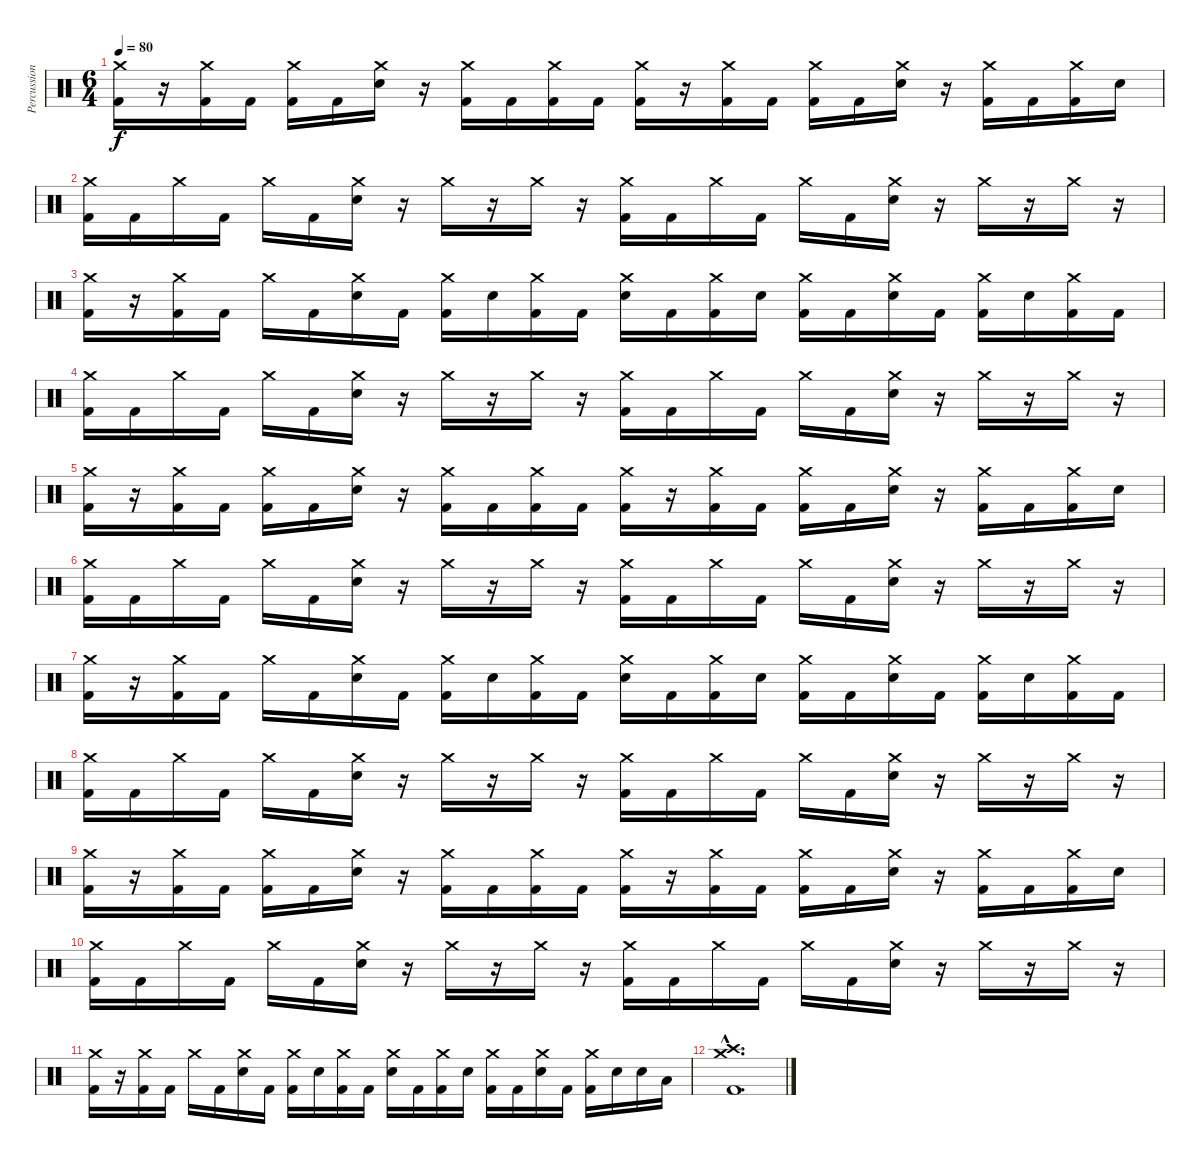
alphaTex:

\track ("Percussion" "Percussion") {instrument percussion}
\staff {score}
\articulation defaults
\ts (6 4)
\tempo 80
\clef neutral
\ks c
("Crash medium (hit)" "Kick (hit) 2").16{dy f} r.16 ("Crash medium (hit)" "Kick (hit) 2").16 "Kick (hit) 2".16 ("Crash medium (hit)" "Kick (hit) 2").16 "Kick (hit) 2".16 ("Crash medium (hit)" "Electric Snare (hit)").16 r.16 ("Crash medium (hit)" "Kick (hit) 2").16 "Kick (hit) 2".16 ("Crash medium (hit)" "Kick (hit) 2").16 "Kick (hit) 2".16 ("Crash medium (hit)" "Kick (hit) 2").16 r.16 ("Crash medium (hit)" "Kick (hit) 2").16 "Kick (hit) 2".16 ("Crash medium (hit)" "Kick (hit) 2").16 "Kick (hit) 2".16 ("Crash medium (hit)" "Electric Snare (hit)").16 r.16 ("Crash medium (hit)" "Kick (hit) 2").16 "Kick (hit) 2".16 ("Crash medium (hit)" "Kick (hit) 2").16 "Electric Snare (hit)".16 |
("Crash medium (hit)" "Kick (hit) 2").16 "Kick (hit) 2".16 "Crash medium (hit)".16 "Kick (hit) 2".16 "Crash medium (hit)".16 "Kick (hit) 2".16 ("Crash medium (hit)" "Electric Snare (hit)").16 r.16 "Crash medium (hit)".16 r.16 "Crash medium (hit)".16 r.16 ("Crash medium (hit)" "Kick (hit) 2").16 "Kick (hit) 2".16 "Crash medium (hit)".16 "Kick (hit) 2".16 "Crash medium (hit)".16 "Kick (hit) 2".16 ("Crash medium (hit)" "Electric Snare (hit)").16 r.16 "Crash medium (hit)".16 r.16 "Crash medium (hit)".16 r.16 |
("Crash medium (hit)" "Kick (hit) 2").16 r.16 ("Crash medium (hit)" "Kick (hit) 2").16 "Kick (hit) 2".16 "Crash medium (hit)".16 "Kick (hit) 2".16 ("Crash medium (hit)" "Electric Snare (hit)").16 "Kick (hit) 2".16 ("Crash medium (hit)" "Kick (hit) 2").16 "Electric Snare (hit)".16 ("Crash medium (hit)" "Kick (hit) 2").16 "Kick (hit) 2".16 ("Crash medium (hit)" "Electric Snare (hit)").16 "Kick (hit) 2".16 ("Crash medium (hit)" "Kick (hit) 2").16 "Electric Snare (hit)".16 ("Crash medium (hit)" "Kick (hit) 2").16 "Kick (hit) 2".16 ("Crash medium (hit)" "Electric Snare (hit)").16 "Kick (hit) 2".16 ("Crash medium (hit)" "Kick (hit) 2").16 "Electric Snare (hit)".16 ("Crash medium (hit)" "Kick (hit) 2").16 "Kick (hit) 2".16 |
("Crash medium (hit)" "Kick (hit) 2").16 "Kick (hit) 2".16 "Crash medium (hit)".16 "Kick (hit) 2".16 "Crash medium (hit)".16 "Kick (hit) 2".16 ("Crash medium (hit)" "Electric Snare (hit)").16 r.16 "Crash medium (hit)".16 r.16 "Crash medium (hit)".16 r.16 ("Crash medium (hit)" "Kick (hit) 2").16 "Kick (hit) 2".16 "Crash medium (hit)".16 "Kick (hit) 2".16 "Crash medium (hit)".16 "Kick (hit) 2".16 ("Crash medium (hit)" "Electric Snare (hit)").16 r.16 "Crash medium (hit)".16 r.16 "Crash medium (hit)".16 r.16 |
("Crash medium (hit)" "Kick (hit) 2").16 r.16 ("Crash medium (hit)" "Kick (hit) 2").16 "Kick (hit) 2".16 ("Crash medium (hit)" "Kick (hit) 2").16 "Kick (hit) 2".16 ("Crash medium (hit)" "Electric Snare (hit)").16 r.16 ("Crash medium (hit)" "Kick (hit) 2").16 "Kick (hit) 2".16 ("Crash medium (hit)" "Kick (hit) 2").16 "Kick (hit) 2".16 ("Crash medium (hit)" "Kick (hit) 2").16 r.16 ("Crash medium (hit)" "Kick (hit) 2").16 "Kick (hit) 2".16 ("Crash medium (hit)" "Kick (hit) 2").16 "Kick (hit) 2".16 ("Crash medium (hit)" "Electric Snare (hit)").16 r.16 ("Crash medium (hit)" "Kick (hit) 2").16 "Kick (hit) 2".16 ("Crash medium (hit)" "Kick (hit) 2").16 "Electric Snare (hit)".16 |
("Crash medium (hit)" "Kick (hit) 2").16 "Kick (hit) 2".16 "Crash medium (hit)".16 "Kick (hit) 2".16 "Crash medium (hit)".16 "Kick (hit) 2".16 ("Crash medium (hit)" "Electric Snare (hit)").16 r.16 "Crash medium (hit)".16 r.16 "Crash medium (hit)".16 r.16 ("Crash medium (hit)" "Kick (hit) 2").16 "Kick (hit) 2".16 "Crash medium (hit)".16 "Kick (hit) 2".16 "Crash medium (hit)".16 "Kick (hit) 2".16 ("Crash medium (hit)" "Electric Snare (hit)").16 r.16 "Crash medium (hit)".16 r.16 "Crash medium (hit)".16 r.16 |
("Crash medium (hit)" "Kick (hit) 2").16 r.16 ("Crash medium (hit)" "Kick (hit) 2").16 "Kick (hit) 2".16 "Crash medium (hit)".16 "Kick (hit) 2".16 ("Crash medium (hit)" "Electric Snare (hit)").16 "Kick (hit) 2".16 ("Crash medium (hit)" "Kick (hit) 2").16 "Electric Snare (hit)".16 ("Crash medium (hit)" "Kick (hit) 2").16 "Kick (hit) 2".16 ("Crash medium (hit)" "Electric Snare (hit)").16 "Kick (hit) 2".16 ("Crash medium (hit)" "Kick (hit) 2").16 "Electric Snare (hit)".16 ("Crash medium (hit)" "Kick (hit) 2").16 "Kick (hit) 2".16 ("Crash medium (hit)" "Electric Snare (hit)").16 "Kick (hit) 2".16 ("Crash medium (hit)" "Kick (hit) 2").16 "Electric Snare (hit)".16 ("Crash medium (hit)" "Kick (hit) 2").16 "Kick (hit) 2".16 |
("Crash medium (hit)" "Kick (hit) 2").16 "Kick (hit) 2".16 "Crash medium (hit)".16 "Kick (hit) 2".16 "Crash medium (hit)".16 "Kick (hit) 2".16 ("Crash medium (hit)" "Electric Snare (hit)").16 r.16 "Crash medium (hit)".16 r.16 "Crash medium (hit)".16 r.16 ("Crash medium (hit)" "Kick (hit) 2").16 "Kick (hit) 2".16 "Crash medium (hit)".16 "Kick (hit) 2".16 "Crash medium (hit)".16 "Kick (hit) 2".16 ("Crash medium (hit)" "Electric Snare (hit)").16 r.16 "Crash medium (hit)".16 r.16 "Crash medium (hit)".16 r.16 |
("Crash medium (hit)" "Kick (hit) 2").16 r.16 ("Crash medium (hit)" "Kick (hit) 2").16 "Kick (hit) 2".16 ("Crash medium (hit)" "Kick (hit) 2").16 "Kick (hit) 2".16 ("Crash medium (hit)" "Electric Snare (hit)").16 r.16 ("Crash medium (hit)" "Kick (hit) 2").16 "Kick (hit) 2".16 ("Crash medium (hit)" "Kick (hit) 2").16 "Kick (hit) 2".16 ("Crash medium (hit)" "Kick (hit) 2").16 r.16 ("Crash medium (hit)" "Kick (hit) 2").16 "Kick (hit) 2".16 ("Crash medium (hit)" "Kick (hit) 2").16 "Kick (hit) 2".16 ("Crash medium (hit)" "Electric Snare (hit)").16 r.16 ("Crash medium (hit)" "Kick (hit) 2").16 "Kick (hit) 2".16 ("Crash medium (hit)" "Kick (hit) 2").16 "Electric Snare (hit)".16 |
("Crash medium (hit)" "Kick (hit) 2").16 "Kick (hit) 2".16 "Crash medium (hit)".16 "Kick (hit) 2".16 "Crash medium (hit)".16 "Kick (hit) 2".16 ("Crash medium (hit)" "Electric Snare (hit)").16 r.16 "Crash medium (hit)".16 r.16 "Crash medium (hit)".16 r.16 ("Crash medium (hit)" "Kick (hit) 2").16 "Kick (hit) 2".16 "Crash medium (hit)".16 "Kick (hit) 2".16 "Crash medium (hit)".16 "Kick (hit) 2".16 ("Crash medium (hit)" "Electric Snare (hit)").16 r.16 "Crash medium (hit)".16 r.16 "Crash medium (hit)".16 r.16 |
("Crash medium (hit)" "Kick (hit) 2").16 r.16 ("Crash medium (hit)" "Kick (hit) 2").16 "Kick (hit) 2".16 "Crash medium (hit)".16 "Kick (hit) 2".16 ("Crash medium (hit)" "Electric Snare (hit)").16 "Kick (hit) 2".16 ("Crash medium (hit)" "Kick (hit) 2").16 "Electric Snare (hit)".16 ("Crash medium (hit)" "Kick (hit) 2").16 "Kick (hit) 2".16 ("Crash medium (hit)" "Electric Snare (hit)").16 "Kick (hit) 2".16 ("Crash medium (hit)" "Kick (hit) 2").16 "Electric Snare (hit)".16 ("Crash medium (hit)" "Kick (hit) 2").16 "Kick (hit) 2".16 ("Crash medium (hit)" "Electric Snare (hit)").16 "Kick (hit) 2".16 ("Crash medium (hit)" "Kick (hit) 2").16 "Electric Snare (hit)".16 "Electric Snare (hit)".16 "Low Tom (hit)".16 |
("Crash medium (hit)"{hac} "Crash high (hit)"{hac} "Kick (hit) 2"{hac}).1{d}
